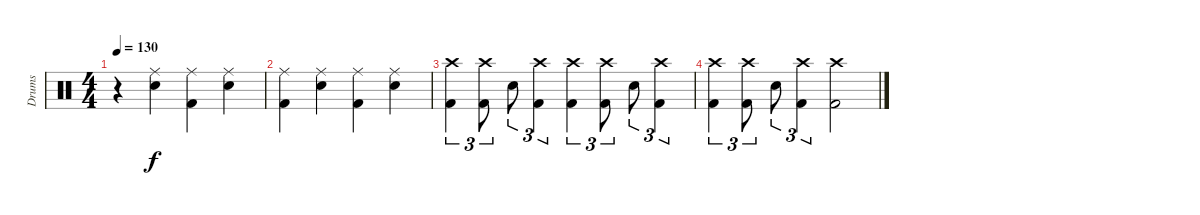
\track ("Drums" "Drums") {instrument percussion}
\staff {score}
\articulation defaults
\ts (4 4)
\tempo 130
\clef neutral
\ks c
r.4{dy f} ("Ride (middle)" "Electric Snare (hit)").4 ("Ride (middle)" "Kick (hit) 2").4 ("Ride (middle)" "Electric Snare (hit)").4 |
("Ride (middle)" "Kick (hit) 2").4 ("Ride (middle)" "Electric Snare (hit)").4 ("Ride (middle)" "Kick (hit) 2").4 ("Ride (middle)" "Electric Snare (hit)").4 |
("Crash high (hit)" "Kick (hit) 2").4{tu (3 2)} ("Crash high (hit)" "Kick (hit) 2").8{tu (3 2)} "Electric Snare (hit)".8{tu (3 2)} ("Crash high (hit)" "Kick (hit) 2").4{tu (3 2)} ("Crash high (hit)" "Kick (hit) 2").4{tu (3 2)} ("Crash high (hit)" "Kick (hit) 2").8{tu (3 2)} "Electric Snare (hit)".8{tu (3 2)} ("Crash high (hit)" "Kick (hit) 2").4{tu (3 2)} |
("Crash high (hit)" "Kick (hit) 2").4{tu (3 2)} ("Crash high (hit)" "Kick (hit) 2").8{tu (3 2)} "Electric Snare (hit)".8{tu (3 2)} ("Crash high (hit)" "Kick (hit) 2").4{tu (3 2)} ("Crash high (hit)" "Kick (hit) 2").2
